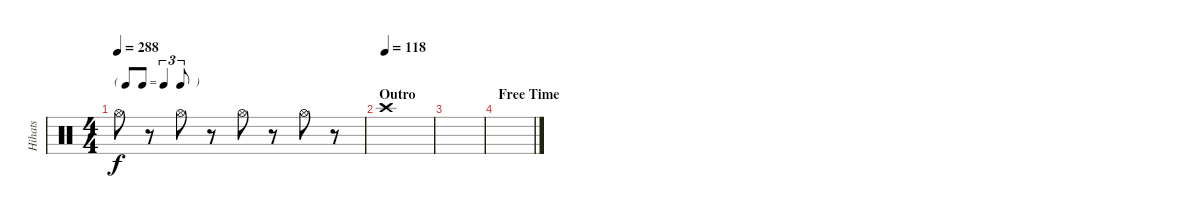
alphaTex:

\track ("Hihats" "Hihats") {instrument percussion}
\staff {score}
\articulation defaults
\ts (4 4)
\tf triplet8th
\tempo 288
\clef neutral
\ks c "Hi-Hat (open)".8{dy f}
r.8 "Hi-Hat (open)".8 r.8 "Hi-Hat (open)".8 r.8 "Hi-Hat (open)".8 r.8 |
\section ("" "Outro")
\tempo 116
\tempo (118)
"Crash high (hit)".1 |
|
\section ("" "Free Time")
